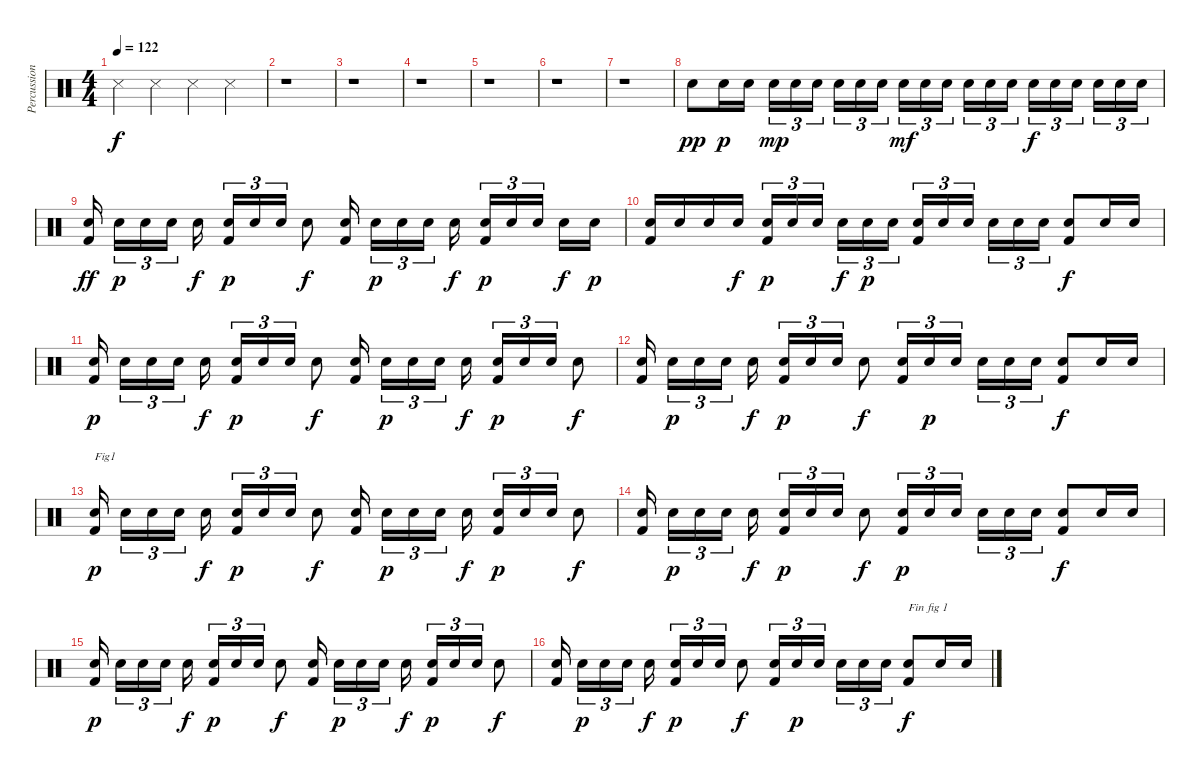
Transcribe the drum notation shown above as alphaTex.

\track ("Percussions" "Percussion") {instrument percussion}
\staff {score}
\articulation defaults
\ts (4 4)
\tempo 122
\clef neutral
\ks c "Metronome (hit)".4{dy f} "Metronome (hit)".4 "Metronome (hit)".4 "Metronome (hit)".4
|
r.1 |
r.1 |
r.1 |
r.1 |
r.1 |
r.1 |
"Snare (hit) 2".8{dy pp} "Snare (hit) 2".16{dy p} "Snare (hit) 2".16 "Snare (hit) 2".16{tu (3 2) dy mp} "Snare (hit) 2".16{tu (3 2)} "Snare (hit) 2".16{tu (3 2)} "Snare (hit) 2".16{tu (3 2)} "Snare (hit) 2".16{tu (3 2)} "Snare (hit) 2".16{tu (3 2)} "Snare (hit) 2".16{tu (3 2) dy mf} "Snare (hit) 2".16{tu (3 2)} "Snare (hit) 2".16{tu (3 2)} "Snare (hit) 2".16{tu (3 2)} "Snare (hit) 2".16{tu (3 2)} "Snare (hit) 2".16{tu (3 2)} "Snare (hit) 2".16{tu (3 2) dy f} "Snare (hit) 2".16{tu (3 2)} "Snare (hit) 2".16{tu (3 2)} "Snare (hit) 2".16{tu (3 2)} "Snare (hit) 2".16{tu (3 2)} "Snare (hit) 2".16{tu (3 2)} |
("Kick (hit) 2" "Snare (hit) 2").16{dy ff} "Snare (hit) 2".16{tu (3 2) dy p} "Snare (hit) 2".16{tu (3 2)} "Snare (hit) 2".16{tu (3 2)} "Snare (hit) 2".16{dy f} ("Kick (hit) 2" "Snare (hit) 2").16{tu (3 2) dy p} "Snare (hit) 2".16{tu (3 2)} "Snare (hit) 2".16{tu (3 2)} "Snare (hit) 2".8{dy f} ("Kick (hit) 2" "Snare (hit) 2").16 "Snare (hit) 2".16{tu (3 2) dy p} "Snare (hit) 2".16{tu (3 2)} "Snare (hit) 2".16{tu (3 2)} "Snare (hit) 2".16{dy f} ("Kick (hit) 2" "Snare (hit) 2").16{tu (3 2) dy p} "Snare (hit) 2".16{tu (3 2)} "Snare (hit) 2".16{tu (3 2)} "Snare (hit) 2".16{dy f} "Snare (hit) 2".16{dy p} |
("Kick (hit) 2" "Snare (hit) 2").16 "Snare (hit) 2".16 "Snare (hit) 2".16 "Snare (hit) 2".16{dy f} ("Kick (hit) 2" "Snare (hit) 2").16{tu (3 2) dy p} "Snare (hit) 2".16{tu (3 2)} "Snare (hit) 2".16{tu (3 2)} "Snare (hit) 2".16{tu (3 2) dy f} "Snare (hit) 2".16{tu (3 2) dy p} "Snare (hit) 2".16{tu (3 2)} ("Kick (hit) 2" "Snare (hit) 2").16{tu (3 2)} "Snare (hit) 2".16{tu (3 2)} "Snare (hit) 2".16{tu (3 2)} "Snare (hit) 2".16{tu (3 2)} "Snare (hit) 2".16{tu (3 2)} "Snare (hit) 2".16{tu (3 2)} ("Kick (hit) 2" "Snare (hit) 2").8{dy f} "Snare (hit) 2".16 "Snare (hit) 2".16 |
("Kick (hit) 2" "Snare (hit) 2").16{dy p} "Snare (hit) 2".16{tu (3 2)} "Snare (hit) 2".16{tu (3 2)} "Snare (hit) 2".16{tu (3 2)} "Snare (hit) 2".16{dy f} ("Kick (hit) 2" "Snare (hit) 2").16{tu (3 2) dy p} "Snare (hit) 2".16{tu (3 2)} "Snare (hit) 2".16{tu (3 2)} "Snare (hit) 2".8{dy f} ("Kick (hit) 2" "Snare (hit) 2").16 "Snare (hit) 2".16{tu (3 2) dy p} "Snare (hit) 2".16{tu (3 2)} "Snare (hit) 2".16{tu (3 2)} "Snare (hit) 2".16{dy f} ("Kick (hit) 2" "Snare (hit) 2").16{tu (3 2) dy p} "Snare (hit) 2".16{tu (3 2)} "Snare (hit) 2".16{tu (3 2)} "Snare (hit) 2".8{dy f} |
("Kick (hit) 2" "Snare (hit) 2").16 "Snare (hit) 2".16{tu (3 2) dy p} "Snare (hit) 2".16{tu (3 2)} "Snare (hit) 2".16{tu (3 2)} "Snare (hit) 2".16{dy f} ("Kick (hit) 2" "Snare (hit) 2").16{tu (3 2) dy p} "Snare (hit) 2".16{tu (3 2)} "Snare (hit) 2".16{tu (3 2)} "Snare (hit) 2".8{dy f} ("Kick (hit) 2" "Snare (hit) 2").16{tu (3 2)} "Snare (hit) 2".16{tu (3 2) dy p} "Snare (hit) 2".16{tu (3 2)} "Snare (hit) 2".16{tu (3 2)} "Snare (hit) 2".16{tu (3 2)} "Snare (hit) 2".16{tu (3 2)} ("Kick (hit) 2" "Snare (hit) 2").8{dy f} "Snare (hit) 2".16 "Snare (hit) 2".16 |
("Kick (hit) 2" "Snare (hit) 2").16{txt "Fig1" dy p} "Snare (hit) 2".16{tu (3 2)} "Snare (hit) 2".16{tu (3 2)} "Snare (hit) 2".16{tu (3 2)} "Snare (hit) 2".16{dy f} ("Kick (hit) 2" "Snare (hit) 2").16{tu (3 2) dy p} "Snare (hit) 2".16{tu (3 2)} "Snare (hit) 2".16{tu (3 2)} "Snare (hit) 2".8{dy f} ("Kick (hit) 2" "Snare (hit) 2").16 "Snare (hit) 2".16{tu (3 2) dy p} "Snare (hit) 2".16{tu (3 2)} "Snare (hit) 2".16{tu (3 2)} "Snare (hit) 2".16{dy f} ("Kick (hit) 2" "Snare (hit) 2").16{tu (3 2) dy p} "Snare (hit) 2".16{tu (3 2)} "Snare (hit) 2".16{tu (3 2)} "Snare (hit) 2".8{dy f} |
("Kick (hit) 2" "Snare (hit) 2").16 "Snare (hit) 2".16{tu (3 2) dy p} "Snare (hit) 2".16{tu (3 2)} "Snare (hit) 2".16{tu (3 2)} "Snare (hit) 2".16{dy f} ("Kick (hit) 2" "Snare (hit) 2").16{tu (3 2) dy p} "Snare (hit) 2".16{tu (3 2)} "Snare (hit) 2".16{tu (3 2)} "Snare (hit) 2".8{dy f} ("Kick (hit) 2" "Snare (hit) 2").16{tu (3 2) dy p} "Snare (hit) 2".16{tu (3 2)} "Snare (hit) 2".16{tu (3 2)} "Snare (hit) 2".16{tu (3 2)} "Snare (hit) 2".16{tu (3 2)} "Snare (hit) 2".16{tu (3 2)} ("Kick (hit) 2" "Snare (hit) 2").8{dy f} "Snare (hit) 2".16 "Snare (hit) 2".16 |
("Kick (hit) 2" "Snare (hit) 2").16{dy p} "Snare (hit) 2".16{tu (3 2)} "Snare (hit) 2".16{tu (3 2)} "Snare (hit) 2".16{tu (3 2)} "Snare (hit) 2".16{dy f} ("Kick (hit) 2" "Snare (hit) 2").16{tu (3 2) dy p} "Snare (hit) 2".16{tu (3 2)} "Snare (hit) 2".16{tu (3 2)} "Snare (hit) 2".8{dy f} ("Kick (hit) 2" "Snare (hit) 2").16 "Snare (hit) 2".16{tu (3 2) dy p} "Snare (hit) 2".16{tu (3 2)} "Snare (hit) 2".16{tu (3 2)} "Snare (hit) 2".16{dy f} ("Kick (hit) 2" "Snare (hit) 2").16{tu (3 2) dy p} "Snare (hit) 2".16{tu (3 2)} "Snare (hit) 2".16{tu (3 2)} "Snare (hit) 2".8{dy f} |
("Kick (hit) 2" "Snare (hit) 2").16 "Snare (hit) 2".16{tu (3 2) dy p} "Snare (hit) 2".16{tu (3 2)} "Snare (hit) 2".16{tu (3 2)} "Snare (hit) 2".16{dy f} ("Kick (hit) 2" "Snare (hit) 2").16{tu (3 2) dy p} "Snare (hit) 2".16{tu (3 2)} "Snare (hit) 2".16{tu (3 2)} "Snare (hit) 2".8{dy f} ("Kick (hit) 2" "Snare (hit) 2").16{tu (3 2)} "Snare (hit) 2".16{tu (3 2) dy p} "Snare (hit) 2".16{tu (3 2)} "Snare (hit) 2".16{tu (3 2)} "Snare (hit) 2".16{tu (3 2)} "Snare (hit) 2".16{tu (3 2)} ("Kick (hit) 2" "Snare (hit) 2").8{txt "Fin fig 1" dy f} "Snare (hit) 2".16 "Snare (hit) 2".16
